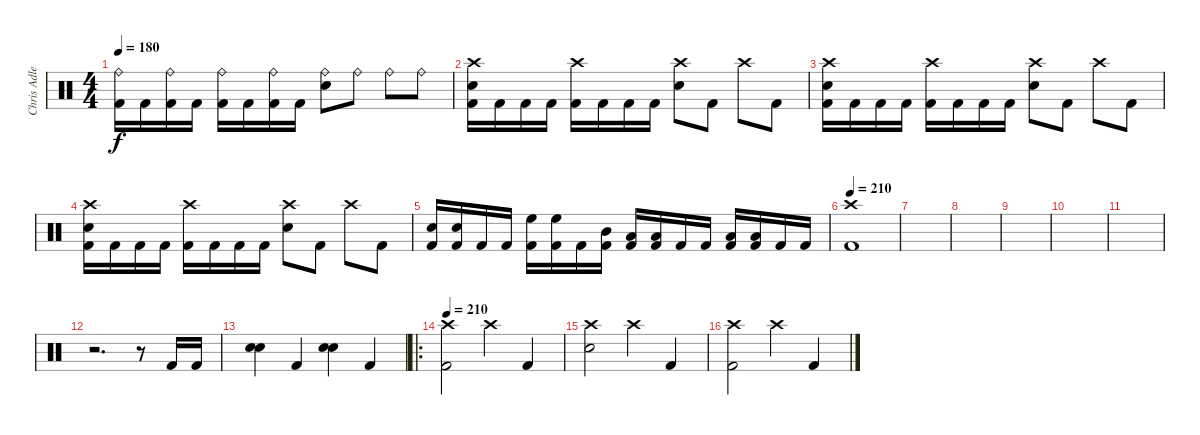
\track ("Chris Adler" "Chris Adle") {instrument percussion}
\staff {score}
\articulation defaults
\ts (4 4)
\tempo 180
\clef neutral
\ks c
("Ride (bell)" "Kick (hit) 2").16{dy f} "Kick (hit) 2".16 ("Ride (bell)" "Kick (hit) 2").16 "Kick (hit) 2".16 ("Ride (bell)" "Kick (hit) 2").16 "Kick (hit) 2".16 ("Ride (bell)" "Kick (hit) 2").16 "Kick (hit) 2".16 ("Ride (bell)" "Snare (hit) 2").8 "Ride (bell)".8 "Ride (bell)".8 "Ride (bell)".8 |
("Crash high (hit)" "Snare (hit) 2" "Kick (hit) 2").16 "Kick (hit) 2".16 "Kick (hit) 2".16 "Kick (hit) 2".16 ("Crash high (hit)" "Kick (hit) 2").16 "Kick (hit) 2".16 "Kick (hit) 2".16 "Kick (hit) 2".16 ("Crash high (hit)" "Snare (hit) 2").8 "Kick (hit) 2".8 "Crash high (hit)".8 "Kick (hit) 2".8 |
("Crash high (hit)" "Snare (hit) 2" "Kick (hit) 2").16 "Kick (hit) 2".16 "Kick (hit) 2".16 "Kick (hit) 2".16 ("Crash high (hit)" "Kick (hit) 2").16 "Kick (hit) 2".16 "Kick (hit) 2".16 "Kick (hit) 2".16 ("Crash high (hit)" "Snare (hit) 2").8 "Kick (hit) 2".8 "Crash high (hit)".8 "Kick (hit) 2".8 |
("Crash high (hit)" "Snare (hit) 2" "Kick (hit) 2").16 "Kick (hit) 2".16 "Kick (hit) 2".16 "Kick (hit) 2".16 ("Crash high (hit)" "Kick (hit) 2").16 "Kick (hit) 2".16 "Kick (hit) 2".16 "Kick (hit) 2".16 ("Crash high (hit)" "Snare (hit) 2").8 "Kick (hit) 2".8 "Crash high (hit)".8 "Kick (hit) 2".8 |
("Snare (hit) 2" "Kick (hit) 2").16 ("Snare (hit) 2" "Kick (hit) 2").16 "Kick (hit) 2".16 "Kick (hit) 2".16 ("High Floor Tom (hit)" "Kick (hit) 2").16 ("High Floor Tom (hit)" "Kick (hit) 2").16 "Kick (hit) 2".16 ("Mid Tom (hit)" "Kick (hit) 2").16 ("Low Tom (hit)" "Kick (hit) 2").16 ("Low Tom (hit)" "Kick (hit) 2").16 "Kick (hit) 2".16 "Kick (hit) 2".16 ("Low Floor Tom (hit)" "Kick (hit) 2").16 ("Low Floor Tom (hit)" "Kick (hit) 2").16 "Kick (hit) 2".16 "Kick (hit) 2".16 |
\tempo 210
("Crash high (hit)" "Kick (hit) 2").1 |
|
|
|
|
|
r.2{d} r.8 "Kick (hit) 2".16 "Kick (hit) 2".16 |
("Electric Snare (hit)" "Electric Snare (hit)").4{bd 480} "Kick (hit) 2".4 ("Electric Snare (hit)" "Electric Snare (hit)").4{bd 480} "Kick (hit) 2".4 |
\ro
\tempo 210
("Crash high (hit)" "Kick (hit) 2").2 "Crash high (hit)".4 "Kick (hit) 2".4 |
("Crash high (hit)" "Snare (hit) 2").2 "Crash high (hit)".4 "Kick (hit) 2".4 |
("Crash high (hit)" "Kick (hit) 2").2 "Crash high (hit)".4 "Kick (hit) 2".4
